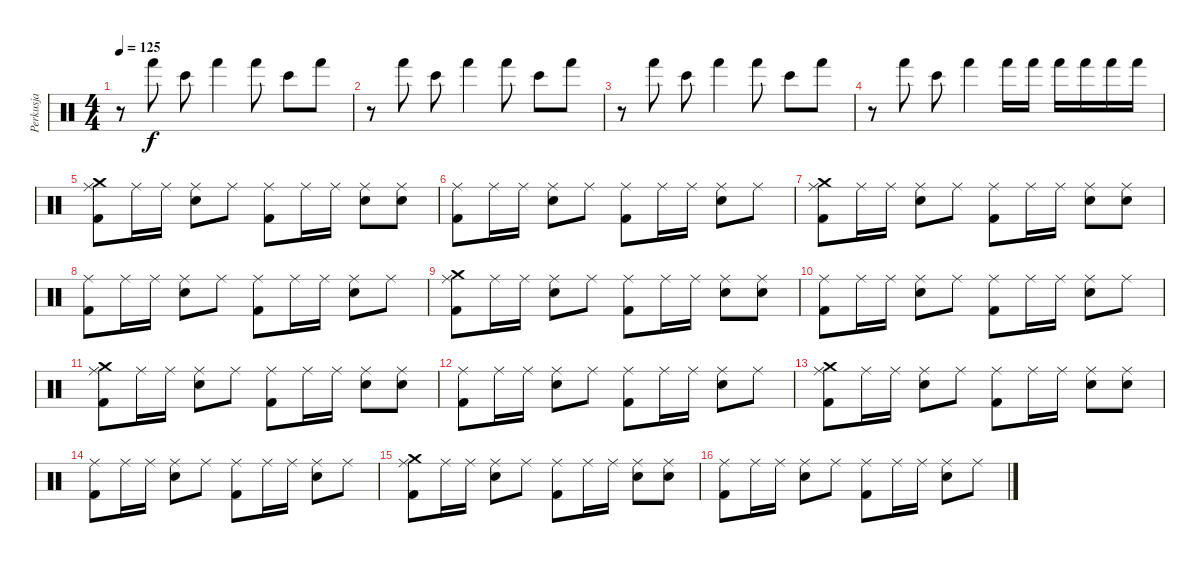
\track ("Perkusja" "Perkusja") {instrument percussion}
\staff {score}
\articulation defaults
\ts (4 4)
\tempo 125
\clef neutral
\ks c
r.8{dy f} "Hand (hit)".8 "Bongo High (hit)".8 "Hand (hit)".4 "Hand (hit)".8 "Bongo High (hit)".8 "Hand (hit)".8 |
r.8 "Hand (hit)".8 "Bongo High (hit)".8 "Hand (hit)".4 "Hand (hit)".8 "Bongo High (hit)".8 "Hand (hit)".8 |
r.8 "Hand (hit)".8 "Bongo High (hit)".8 "Hand (hit)".4 "Hand (hit)".8 "Bongo High (hit)".8 "Hand (hit)".8 |
r.8 "Hand (hit)".8 "Bongo High (hit)".8 "Hand (hit)".4 "Hand (hit)".16 "Hand (hit)".16 "Hand (hit)".16 "Hand (hit)".16 "Hand (hit)".16 "Hand (hit)".16 |
("Crash medium (hit)" "Ride (middle)" "Kick (hit) 2").8 "Ride (middle)".16 "Ride (middle)".16 ("Ride (middle)" "Electric Snare (hit)").8 "Ride (middle)".8 ("Ride (middle)" "Kick (hit) 2").8 "Ride (middle)".16 "Ride (middle)".16 ("Ride (middle)" "Electric Snare (hit)").8 ("Ride (middle)" "Electric Snare (hit)").8 |
("Ride (middle)" "Kick (hit) 2").8 "Ride (middle)".16 "Ride (middle)".16 ("Ride (middle)" "Electric Snare (hit)").8 "Ride (middle)".8 ("Ride (middle)" "Kick (hit) 2").8 "Ride (middle)".16 "Ride (middle)".16 ("Ride (middle)" "Electric Snare (hit)").8 "Ride (middle)".8 |
("Crash medium (hit)" "Ride (middle)" "Kick (hit) 2").8 "Ride (middle)".16 "Ride (middle)".16 ("Ride (middle)" "Electric Snare (hit)").8 "Ride (middle)".8 ("Ride (middle)" "Kick (hit) 2").8 "Ride (middle)".16 "Ride (middle)".16 ("Ride (middle)" "Electric Snare (hit)").8 ("Ride (middle)" "Electric Snare (hit)").8 |
("Ride (middle)" "Kick (hit) 2").8 "Ride (middle)".16 "Ride (middle)".16 ("Ride (middle)" "Electric Snare (hit)").8 "Ride (middle)".8 ("Ride (middle)" "Kick (hit) 2").8 "Ride (middle)".16 "Ride (middle)".16 ("Ride (middle)" "Electric Snare (hit)").8 "Ride (middle)".8 |
("Crash medium (hit)" "Ride (middle)" "Kick (hit) 2").8 "Ride (middle)".16 "Ride (middle)".16 ("Ride (middle)" "Electric Snare (hit)").8 "Ride (middle)".8 ("Ride (middle)" "Kick (hit) 2").8 "Ride (middle)".16 "Ride (middle)".16 ("Ride (middle)" "Electric Snare (hit)").8 ("Ride (middle)" "Electric Snare (hit)").8 |
("Ride (middle)" "Kick (hit) 2").8 "Ride (middle)".16 "Ride (middle)".16 ("Ride (middle)" "Electric Snare (hit)").8 "Ride (middle)".8 ("Ride (middle)" "Kick (hit) 2").8 "Ride (middle)".16 "Ride (middle)".16 ("Ride (middle)" "Electric Snare (hit)").8 "Ride (middle)".8 |
("Crash medium (hit)" "Ride (middle)" "Kick (hit) 2").8 "Ride (middle)".16 "Ride (middle)".16 ("Ride (middle)" "Electric Snare (hit)").8 "Ride (middle)".8 ("Ride (middle)" "Kick (hit) 2").8 "Ride (middle)".16 "Ride (middle)".16 ("Ride (middle)" "Electric Snare (hit)").8 ("Ride (middle)" "Electric Snare (hit)").8 |
("Ride (middle)" "Kick (hit) 2").8 "Ride (middle)".16 "Ride (middle)".16 ("Ride (middle)" "Electric Snare (hit)").8 "Ride (middle)".8 ("Ride (middle)" "Kick (hit) 2").8 "Ride (middle)".16 "Ride (middle)".16 ("Ride (middle)" "Electric Snare (hit)").8 "Ride (middle)".8 |
("Crash medium (hit)" "Ride (middle)" "Kick (hit) 2").8 "Ride (middle)".16 "Ride (middle)".16 ("Ride (middle)" "Electric Snare (hit)").8 "Ride (middle)".8 ("Ride (middle)" "Kick (hit) 2").8 "Ride (middle)".16 "Ride (middle)".16 ("Ride (middle)" "Electric Snare (hit)").8 ("Ride (middle)" "Electric Snare (hit)").8 |
("Ride (middle)" "Kick (hit) 2").8 "Ride (middle)".16 "Ride (middle)".16 ("Ride (middle)" "Electric Snare (hit)").8 "Ride (middle)".8 ("Ride (middle)" "Kick (hit) 2").8 "Ride (middle)".16 "Ride (middle)".16 ("Ride (middle)" "Electric Snare (hit)").8 "Ride (middle)".8 |
("Crash medium (hit)" "Ride (middle)" "Kick (hit) 2").8 "Ride (middle)".16 "Ride (middle)".16 ("Ride (middle)" "Electric Snare (hit)").8 "Ride (middle)".8 ("Ride (middle)" "Kick (hit) 2").8 "Ride (middle)".16 "Ride (middle)".16 ("Ride (middle)" "Electric Snare (hit)").8 ("Ride (middle)" "Electric Snare (hit)").8 |
("Ride (middle)" "Kick (hit) 2").8 "Ride (middle)".16 "Ride (middle)".16 ("Ride (middle)" "Electric Snare (hit)").8 "Ride (middle)".8 ("Ride (middle)" "Kick (hit) 2").8 "Ride (middle)".16 "Ride (middle)".16 ("Ride (middle)" "Electric Snare (hit)").8 "Ride (middle)".8
